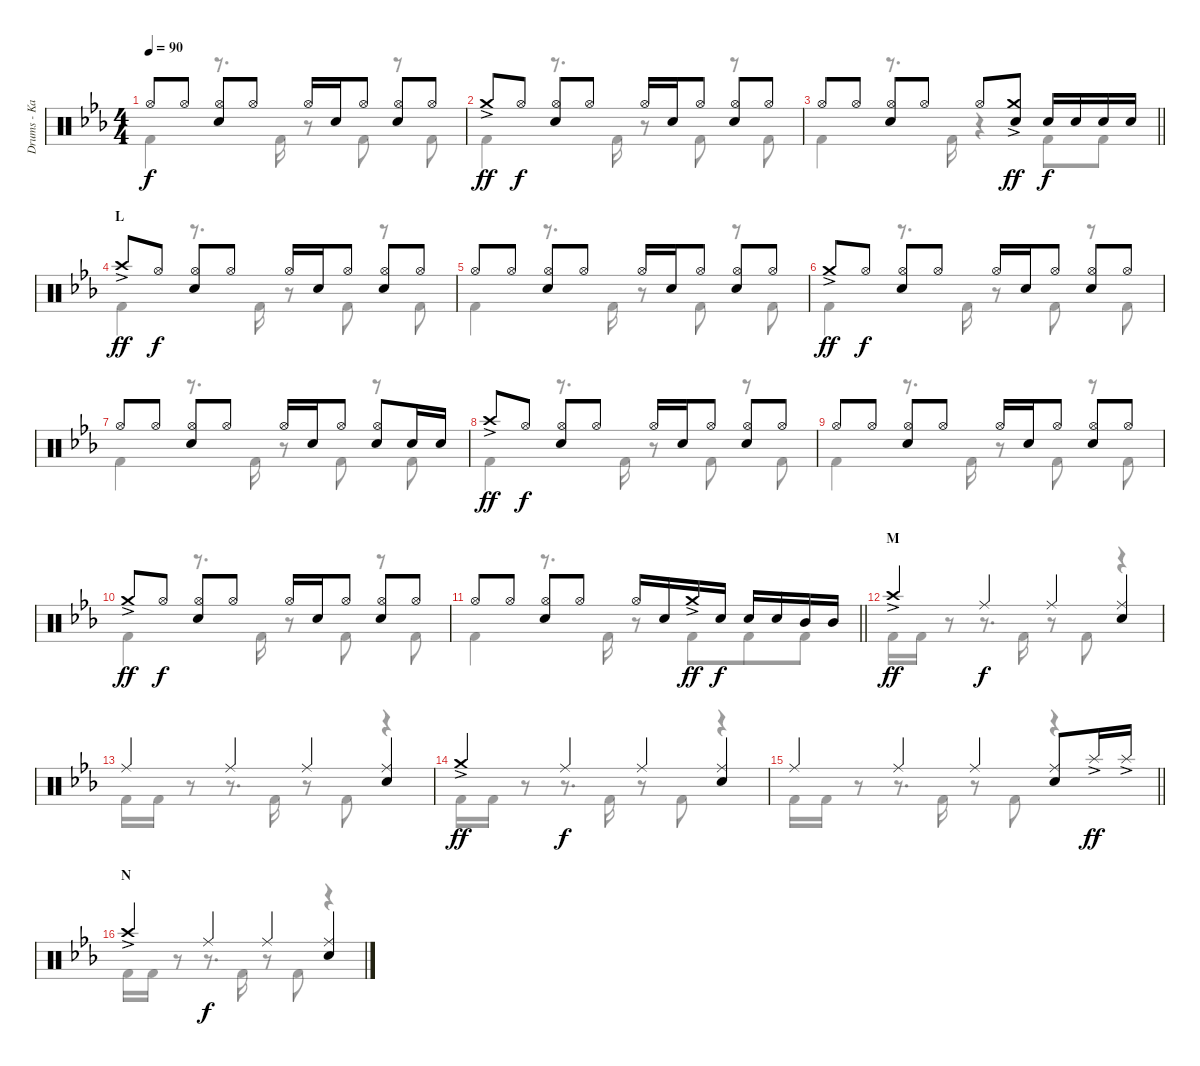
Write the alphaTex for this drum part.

\track ("Drums - Kai" "Drums - Ka") {instrument percussion}
\staff {score}
\articulation defaults
\voice
\ts (4 4)
\tempo 90
\clef neutral
\ks eb "Hi-Hat (open)".8{dy f} "Hi-Hat (open)".8
("Hi-Hat (open)" "Snare (hit) 2").8 "Hi-Hat (open)".8 "Hi-Hat (open)".16 "Snare (hit) 2".16 "Hi-Hat (open)".8 ("Hi-Hat (open)" "Snare (hit) 2").8 "Hi-Hat (open)".8 |
"Crash medium (hit)"{ac}.8{dy ff} "Hi-Hat (open)".8{dy f} ("Hi-Hat (open)" "Snare (hit) 2").8 "Hi-Hat (open)".8 "Hi-Hat (open)".16 "Snare (hit) 2".16 "Hi-Hat (open)".8 ("Hi-Hat (open)" "Snare (hit) 2").8 "Hi-Hat (open)".8 |
\barLineRight lightlight "Hi-Hat (open)".8 "Hi-Hat (open)".8
("Hi-Hat (open)" "Snare (hit) 2").8 "Hi-Hat (open)".8 "Hi-Hat (open)".8 ("Crash medium (hit)"{ac} "Snare (hit) 2").8{dy ff} "Snare (hit) 2".16{dy f} "Snare (hit) 2".16 "Snare (hit) 2".16 "Snare (hit) 2".16 |
\section ("" "L")
"Crash high (hit)"{ac}.8{dy ff} "Hi-Hat (open)".8{dy f} ("Hi-Hat (open)" "Snare (hit) 2").8 "Hi-Hat (open)".8 "Hi-Hat (open)".16 "Snare (hit) 2".16 "Hi-Hat (open)".8 ("Hi-Hat (open)" "Snare (hit) 2").8 "Hi-Hat (open)".8 |
"Hi-Hat (open)".8 "Hi-Hat (open)".8 ("Hi-Hat (open)" "Snare (hit) 2").8 "Hi-Hat (open)".8 "Hi-Hat (open)".16 "Snare (hit) 2".16 "Hi-Hat (open)".8 ("Hi-Hat (open)" "Snare (hit) 2").8 "Hi-Hat (open)".8 |
"Crash medium (hit)"{ac}.8{dy ff} "Hi-Hat (open)".8{dy f} ("Hi-Hat (open)" "Snare (hit) 2").8 "Hi-Hat (open)".8 "Hi-Hat (open)".16 "Snare (hit) 2".16 "Hi-Hat (open)".8 ("Hi-Hat (open)" "Snare (hit) 2").8 "Hi-Hat (open)".8 |
"Hi-Hat (open)".8 "Hi-Hat (open)".8 ("Hi-Hat (open)" "Snare (hit) 2").8 "Hi-Hat (open)".8 "Hi-Hat (open)".16 "Snare (hit) 2".16 "Hi-Hat (open)".8 ("Hi-Hat (open)" "Snare (hit) 2").8 "Snare (hit) 2".16 "Snare (hit) 2".16 |
"Crash high (hit)"{ac}.8{dy ff} "Hi-Hat (open)".8{dy f} ("Hi-Hat (open)" "Snare (hit) 2").8 "Hi-Hat (open)".8 "Hi-Hat (open)".16 "Snare (hit) 2".16 "Hi-Hat (open)".8 ("Hi-Hat (open)" "Snare (hit) 2").8 "Hi-Hat (open)".8 |
"Hi-Hat (open)".8 "Hi-Hat (open)".8 ("Hi-Hat (open)" "Snare (hit) 2").8 "Hi-Hat (open)".8 "Hi-Hat (open)".16 "Snare (hit) 2".16 "Hi-Hat (open)".8 ("Hi-Hat (open)" "Snare (hit) 2").8 "Hi-Hat (open)".8 |
"Crash medium (hit)"{ac}.8{dy ff} "Hi-Hat (open)".8{dy f} ("Hi-Hat (open)" "Snare (hit) 2").8 "Hi-Hat (open)".8 "Hi-Hat (open)".16 "Snare (hit) 2".16 "Hi-Hat (open)".8 ("Hi-Hat (open)" "Snare (hit) 2").8 "Hi-Hat (open)".8 |
\barLineRight lightlight "Hi-Hat (open)".8 "Hi-Hat (open)".8
("Hi-Hat (open)" "Snare (hit) 2").8 "Hi-Hat (open)".8 "Hi-Hat (open)".16 "Snare (hit) 2".16 "Crash medium (hit)"{ac}.16{dy ff} "Snare (hit) 2".16{dy f} "Snare (hit) 2".16 "Snare (hit) 2".16 "Mid Tom (hit)".16 "Mid Tom (hit)".16 |
\section ("" "M")
"Crash high (hit)"{ac}.4{dy ff} "Ride (middle)".4{dy f} "Ride (middle)".4 ("Ride (middle)" "Snare (hit) 2").4 |
"Ride (middle)".4 "Ride (middle)".4 "Ride (middle)".4 ("Ride (middle)" "Snare (hit) 2").4 |
"Crash medium (hit)"{ac}.4{dy ff} "Ride (middle)".4{dy f} "Ride (middle)".4 ("Ride (middle)" "Snare (hit) 2").4 |
\barLineRight lightlight "Ride (middle)".4 "Ride (middle)".4 "Ride (middle)".4
("Ride (middle)" "Snare (hit) 2").8 "Splash (hit)"{ac}.16{dy ff} "Splash (hit)"{ac}.16 |
\section ("" "N")
"Crash high (hit)"{ac}.4 "Ride (middle)".4{dy f} "Ride (middle)".4 ("Ride (middle)" "Snare (hit) 2").4
\voice
\clef neutral
\ottava regular
\simile none
\ks eb "Kick (hit) 2".4{dy f}
r.8{d} "Kick (hit) 2".16 r.8 "Kick (hit) 2".8 r.8 "Kick (hit) 2".8 |
"Kick (hit) 2".4 r.8{d} "Kick (hit) 2".16 r.8 "Kick (hit) 2".8 r.8 "Kick (hit) 2".8 |
\barLineRight lightlight "Kick (hit) 2".4
r.8{d} "Kick (hit) 2".16 r.4 "Kick (hit) 2".8 "Kick (hit) 2".8 |
"Kick (hit) 2".4 r.8{d} "Kick (hit) 2".16 r.8 "Kick (hit) 2".8 r.8 "Kick (hit) 2".8 |
"Kick (hit) 2".4 r.8{d} "Kick (hit) 2".16 r.8 "Kick (hit) 2".8 r.8 "Kick (hit) 2".8 |
"Kick (hit) 2".4 r.8{d} "Kick (hit) 2".16 r.8 "Kick (hit) 2".8 r.8 "Kick (hit) 2".8 |
"Kick (hit) 2".4 r.8{d} "Kick (hit) 2".16 r.8 "Kick (hit) 2".8 r.8 "Kick (hit) 2".8 |
"Kick (hit) 2".4 r.8{d} "Kick (hit) 2".16 r.8 "Kick (hit) 2".8 r.8 "Kick (hit) 2".8 |
"Kick (hit) 2".4 r.8{d} "Kick (hit) 2".16 r.8 "Kick (hit) 2".8 r.8 "Kick (hit) 2".8 |
"Kick (hit) 2".4 r.8{d} "Kick (hit) 2".16 r.8 "Kick (hit) 2".8 r.8 "Kick (hit) 2".8 |
\barLineRight lightlight "Kick (hit) 2".4
r.8{d} "Kick (hit) 2".16 r.8 "Kick (hit) 2".8{beam merge} "Kick (hit) 2".8 "Kick (hit) 2".8 |
"Kick (hit) 2".16 "Kick (hit) 2".16 r.8 r.8{d} "Kick (hit) 2".16 r.8 "Kick (hit) 2".8 r.4 |
"Kick (hit) 2".16 "Kick (hit) 2".16 r.8 r.8{d} "Kick (hit) 2".16 r.8 "Kick (hit) 2".8 r.4 |
"Kick (hit) 2".16 "Kick (hit) 2".16 r.8 r.8{d} "Kick (hit) 2".16 r.8 "Kick (hit) 2".8 r.4 |
\barLineRight lightlight "Kick (hit) 2".16 "Kick (hit) 2".16
r.8 r.8{d} "Kick (hit) 2".16 r.8 "Kick (hit) 2".8 r.4 |
"Kick (hit) 2".16 "Kick (hit) 2".16 r.8 r.8{d} "Kick (hit) 2".16 r.8 "Kick (hit) 2".8 r.4
